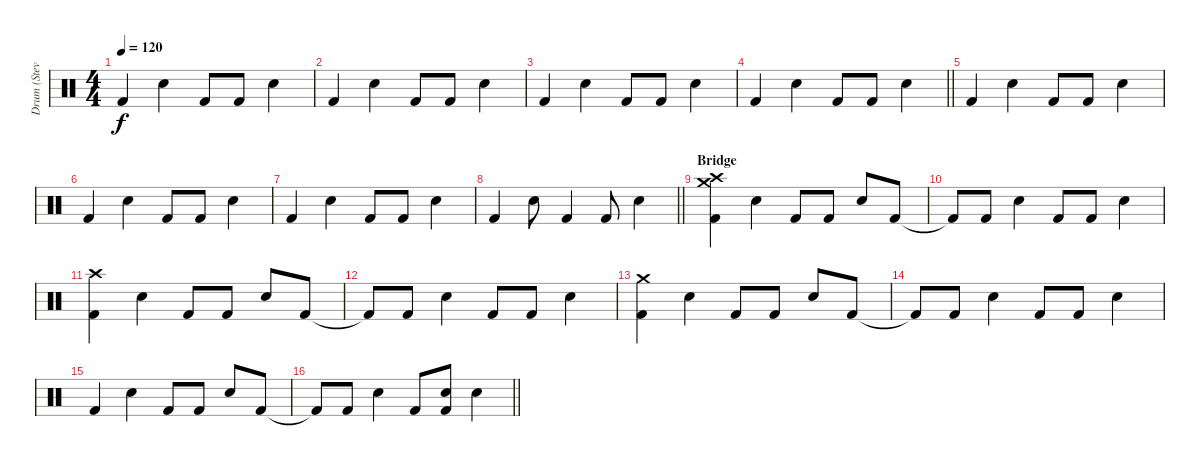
\track ("Drum (Steven)" "Drum (Stev") {instrument percussion}
\staff {score}
\articulation defaults
\ts (4 4)
\tempo 120
\clef neutral
\ks c "Kick (hit) 2".4{dy f} "Snare (hit) 2".4 "Kick (hit) 2".8 "Kick (hit) 2".8 "Snare (hit) 2".4
|
"Kick (hit) 2".4 "Snare (hit) 2".4 "Kick (hit) 2".8 "Kick (hit) 2".8 "Snare (hit) 2".4 |
"Kick (hit) 2".4 "Snare (hit) 2".4 "Kick (hit) 2".8 "Kick (hit) 2".8 "Snare (hit) 2".4 |
\barLineRight lightlight "Kick (hit) 2".4 "Snare (hit) 2".4 "Kick (hit) 2".8 "Kick (hit) 2".8 "Snare (hit) 2".4
|
"Kick (hit) 2".4 "Snare (hit) 2".4 "Kick (hit) 2".8 "Kick (hit) 2".8 "Snare (hit) 2".4 |
"Kick (hit) 2".4 "Snare (hit) 2".4 "Kick (hit) 2".8 "Kick (hit) 2".8 "Snare (hit) 2".4 |
"Kick (hit) 2".4 "Snare (hit) 2".4 "Kick (hit) 2".8 "Kick (hit) 2".8 "Snare (hit) 2".4 |
\barLineRight lightlight "Kick (hit) 2".4 "Snare (hit) 2".8 "Kick (hit) 2".4 "Kick (hit) 2".8 "Snare (hit) 2".4
|
\section ("" "Bridge")
("Kick (hit) 2" "Crash high (hit)" "Crash medium (hit)").4 "Snare (hit) 2".4 "Kick (hit) 2".8 "Kick (hit) 2".8 "Snare (hit) 2".8 "Kick (hit) 2".8 |
"Kick (hit) 2"{t}.8 "Kick (hit) 2".8 "Snare (hit) 2".4 "Kick (hit) 2".8 "Kick (hit) 2".8 "Snare (hit) 2".4 |
("Kick (hit) 2" "Crash high (hit)").4 "Snare (hit) 2".4 "Kick (hit) 2".8 "Kick (hit) 2".8 "Snare (hit) 2".8 "Kick (hit) 2".8 |
"Kick (hit) 2"{t}.8 "Kick (hit) 2".8 "Snare (hit) 2".4 "Kick (hit) 2".8 "Kick (hit) 2".8 "Snare (hit) 2".4 |
("Kick (hit) 2" "Crash medium (hit)").4 "Snare (hit) 2".4 "Kick (hit) 2".8 "Kick (hit) 2".8 "Snare (hit) 2".8 "Kick (hit) 2".8 |
"Kick (hit) 2"{t}.8 "Kick (hit) 2".8 "Snare (hit) 2".4 "Kick (hit) 2".8 "Kick (hit) 2".8 "Snare (hit) 2".4 |
"Kick (hit) 2".4 "Snare (hit) 2".4 "Kick (hit) 2".8 "Kick (hit) 2".8 "Snare (hit) 2".8 "Kick (hit) 2".8 |
\barLineRight lightlight "Kick (hit) 2"{t}.8 "Kick (hit) 2".8 "Snare (hit) 2".4 "Kick (hit) 2".8
("Snare (hit) 2" "Kick (hit) 2").8 "Snare (hit) 2".4
